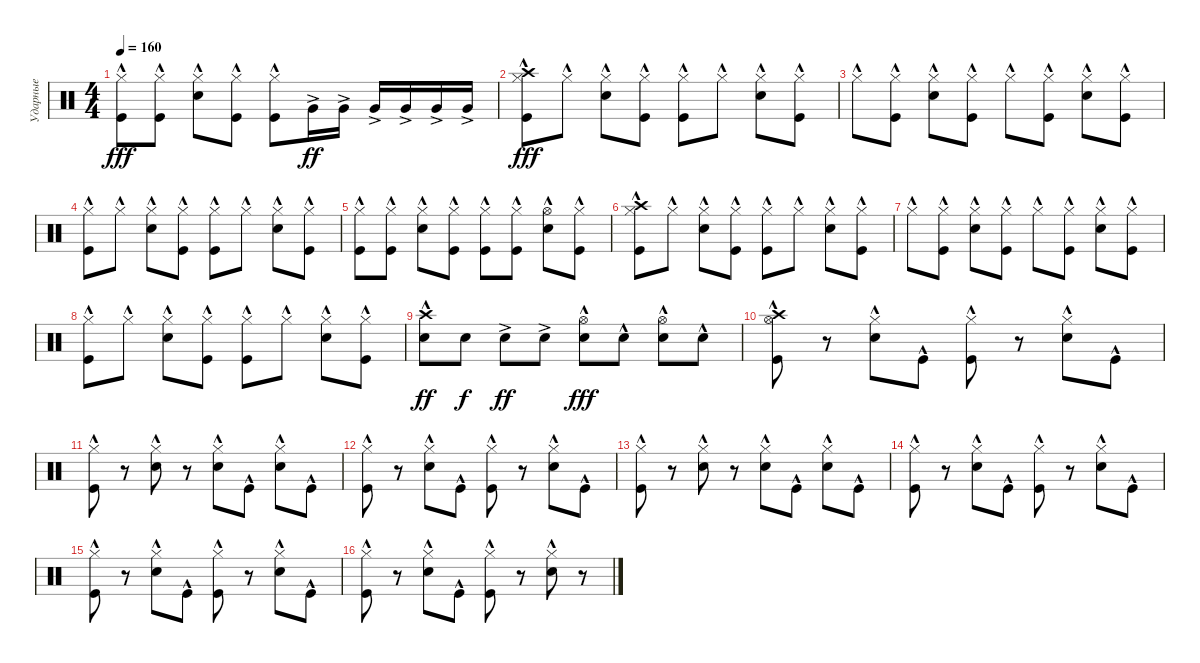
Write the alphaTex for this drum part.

\track ("Ударные" "Ударные") {instrument percussion}
\staff {score}
\articulation defaults
\ts (4 4)
\tempo 160
\clef neutral
\ks c
("Hi-Hat (closed)"{hac} "Kick (hit)"{hac}).8{dy fff} ("Hi-Hat (closed)"{hac} "Kick (hit)"{hac}).8 ("Hi-Hat (closed)"{hac} "Snare (hit) 2"{hac}).8 ("Hi-Hat (closed)"{hac} "Kick (hit)"{hac}).8 ("Hi-Hat (closed)"{hac} "Kick (hit)"{hac}).8 "Very Low Tom (hit)"{ac}.16{dy ff} "Very Low Tom (hit)"{ac}.16 "Very Low Tom (hit)"{ac}.16 "Very Low Tom (hit)"{ac}.16 "Very Low Tom (hit)"{ac}.16 "Very Low Tom (hit)"{ac}.16 |
("Hi-Hat (closed)"{hac} "Crash high (hit)"{hac} "Kick (hit)"{hac}).8{dy fff} "Hi-Hat (closed)"{hac}.8 ("Hi-Hat (closed)"{hac} "Snare (hit) 2"{hac}).8 ("Hi-Hat (closed)"{hac} "Kick (hit)"{hac}).8 ("Hi-Hat (closed)"{hac} "Kick (hit)"{hac}).8 "Hi-Hat (closed)"{hac}.8 ("Hi-Hat (closed)"{hac} "Snare (hit) 2"{hac}).8 ("Hi-Hat (closed)"{hac} "Kick (hit)"{hac}).8 |
"Hi-Hat (closed)"{hac}.8 ("Hi-Hat (closed)"{hac} "Kick (hit)"{hac}).8 ("Hi-Hat (closed)"{hac} "Snare (hit) 2"{hac}).8 ("Hi-Hat (closed)"{hac} "Kick (hit)"{hac}).8 "Hi-Hat (closed)"{hac}.8 ("Hi-Hat (closed)"{hac} "Kick (hit)"{hac}).8 ("Hi-Hat (closed)"{hac} "Snare (hit) 2"{hac}).8 ("Hi-Hat (closed)"{hac} "Kick (hit)"{hac}).8 |
("Hi-Hat (closed)"{hac} "Kick (hit)"{hac}).8 "Hi-Hat (closed)"{hac}.8 ("Hi-Hat (closed)"{hac} "Snare (hit) 2"{hac}).8 ("Hi-Hat (closed)"{hac} "Kick (hit)"{hac}).8 ("Hi-Hat (closed)"{hac} "Kick (hit)"{hac}).8 "Hi-Hat (closed)"{hac}.8 ("Hi-Hat (closed)"{hac} "Snare (hit) 2"{hac}).8 ("Hi-Hat (closed)"{hac} "Kick (hit)"{hac}).8 |
("Hi-Hat (closed)"{hac} "Kick (hit)"{hac}).8 ("Hi-Hat (closed)"{hac} "Kick (hit)"{hac}).8 ("Hi-Hat (closed)"{hac} "Snare (hit) 2"{hac}).8 ("Hi-Hat (closed)"{hac} "Kick (hit)"{hac}).8 ("Hi-Hat (closed)"{hac} "Kick (hit)"{hac}).8 ("Hi-Hat (closed)"{hac} "Kick (hit)"{hac}).8 ("Hi-Hat (open)"{hac} "Snare (hit) 2"{hac}).8 ("Hi-Hat (closed)"{hac} "Kick (hit)"{hac}).8 |
("Hi-Hat (closed)"{hac} "Crash high (hit)"{hac} "Kick (hit)"{hac}).8 "Hi-Hat (closed)"{hac}.8 ("Hi-Hat (closed)"{hac} "Snare (hit) 2"{hac}).8 ("Hi-Hat (closed)"{hac} "Kick (hit)"{hac}).8 ("Hi-Hat (closed)"{hac} "Kick (hit)"{hac}).8 "Hi-Hat (closed)"{hac}.8 ("Hi-Hat (closed)"{hac} "Snare (hit) 2"{hac}).8 ("Hi-Hat (closed)"{hac} "Kick (hit)"{hac}).8 |
"Hi-Hat (closed)"{hac}.8 ("Hi-Hat (closed)"{hac} "Kick (hit)"{hac}).8 ("Hi-Hat (closed)"{hac} "Snare (hit) 2"{hac}).8 ("Hi-Hat (closed)"{hac} "Kick (hit)"{hac}).8 "Hi-Hat (closed)"{hac}.8 ("Hi-Hat (closed)"{hac} "Kick (hit)"{hac}).8 ("Hi-Hat (closed)"{hac} "Snare (hit) 2"{hac}).8 ("Hi-Hat (closed)"{hac} "Kick (hit)"{hac}).8 |
("Hi-Hat (closed)"{hac} "Kick (hit)"{hac}).8 "Hi-Hat (closed)"{hac}.8 ("Hi-Hat (closed)"{hac} "Snare (hit) 2"{hac}).8 ("Hi-Hat (closed)"{hac} "Kick (hit)"{hac}).8 ("Hi-Hat (closed)"{hac} "Kick (hit)"{hac}).8 "Hi-Hat (closed)"{hac}.8 ("Hi-Hat (closed)"{hac} "Snare (hit) 2"{hac}).8 ("Hi-Hat (closed)"{hac} "Kick (hit)"{hac}).8 |
("Crash high (hit)"{hac} "Snare (hit) 2").8{dy ff} "Snare (hit) 2".8{dy f} "Snare (hit) 2"{ac}.8{dy ff} "Snare (hit) 2"{ac}.8 ("Hi-Hat (open)"{hac} "Snare (hit) 2"{hac}).8{dy fff} "Snare (hit) 2"{hac}.8 ("Hi-Hat (open)"{hac} "Snare (hit) 2"{hac}).8 "Snare (hit) 2"{hac}.8 |
("Hi-Hat (open)"{hac} "Crash high (hit)"{hac} "Kick (hit)"{hac}).8 r.8 ("Hi-Hat (closed)"{hac} "Snare (hit) 2"{hac}).8 "Kick (hit)"{hac}.8 ("Hi-Hat (closed)"{hac} "Kick (hit)"{hac}).8 r.8 ("Hi-Hat (closed)"{hac} "Snare (hit) 2"{hac}).8 "Kick (hit)"{hac}.8 |
("Hi-Hat (closed)"{hac} "Kick (hit)"{hac}).8 r.8 ("Hi-Hat (closed)"{hac} "Snare (hit) 2"{hac}).8 r.8 ("Hi-Hat (closed)"{hac} "Snare (hit) 2"{hac}).8 "Kick (hit)"{hac}.8 ("Hi-Hat (closed)"{hac} "Snare (hit) 2"{hac}).8 "Kick (hit)"{hac}.8 |
("Hi-Hat (closed)"{hac} "Kick (hit)"{hac}).8 r.8 ("Hi-Hat (closed)"{hac} "Snare (hit) 2"{hac}).8 "Kick (hit)"{hac}.8 ("Hi-Hat (closed)"{hac} "Kick (hit)"{hac}).8 r.8 ("Hi-Hat (closed)"{hac} "Snare (hit) 2"{hac}).8 "Kick (hit)"{hac}.8 |
("Hi-Hat (closed)"{hac} "Kick (hit)"{hac}).8 r.8 ("Hi-Hat (closed)"{hac} "Snare (hit) 2"{hac}).8 r.8 ("Hi-Hat (closed)"{hac} "Snare (hit) 2"{hac}).8 "Kick (hit)"{hac}.8 ("Hi-Hat (closed)"{hac} "Snare (hit) 2"{hac}).8 "Kick (hit)"{hac}.8 |
("Hi-Hat (closed)"{hac} "Kick (hit)"{hac}).8 r.8 ("Hi-Hat (closed)"{hac} "Snare (hit) 2"{hac}).8 "Kick (hit)"{hac}.8 ("Hi-Hat (closed)"{hac} "Kick (hit)"{hac}).8 r.8 ("Hi-Hat (closed)"{hac} "Snare (hit) 2"{hac}).8 "Kick (hit)"{hac}.8 |
("Hi-Hat (closed)"{hac} "Kick (hit)"{hac}).8 r.8 ("Hi-Hat (closed)"{hac} "Snare (hit) 2"{hac}).8 "Kick (hit)"{hac}.8 ("Hi-Hat (closed)"{hac} "Kick (hit)"{hac}).8 r.8 ("Hi-Hat (closed)"{hac} "Snare (hit) 2"{hac}).8 "Kick (hit)"{hac}.8 |
("Hi-Hat (closed)"{hac} "Kick (hit)"{hac}).8 r.8 ("Hi-Hat (closed)"{hac} "Snare (hit) 2"{hac}).8 "Kick (hit)"{hac}.8 ("Hi-Hat (closed)"{hac} "Kick (hit)"{hac}).8 r.8 ("Hi-Hat (closed)"{hac} "Snare (hit) 2"{hac}).8 r.8
